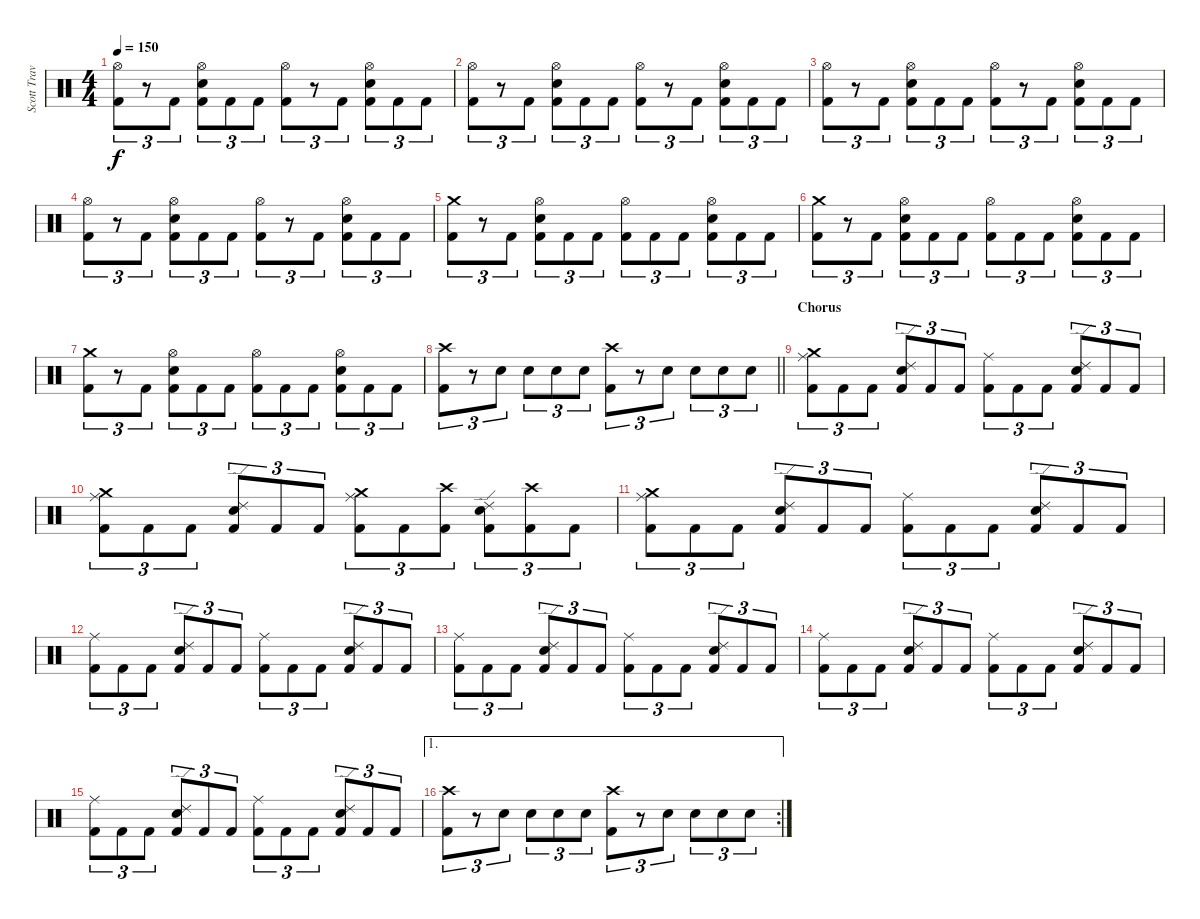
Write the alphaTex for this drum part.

\track ("Scott Travis" "Scott Trav") {instrument percussion}
\staff {score}
\articulation defaults
\ts (4 4)
\tempo 150
\clef neutral
\ks c
("Hi-Hat (open)" "Kick (hit) 2").8{tu (3 2) dy f} r.8{tu (3 2)} "Kick (hit) 2".8{tu (3 2)} ("Hi-Hat (open)" "Snare (hit) 2" "Kick (hit) 2").8{tu (3 2)} "Kick (hit) 2".8{tu (3 2)} "Kick (hit) 2".8{tu (3 2)} ("Hi-Hat (open)" "Kick (hit) 2").8{tu (3 2)} r.8{tu (3 2)} "Kick (hit) 2".8{tu (3 2)} ("Hi-Hat (open)" "Snare (hit) 2" "Kick (hit) 2").8{tu (3 2)} "Kick (hit) 2".8{tu (3 2)} "Kick (hit) 2".8{tu (3 2)} |
("Hi-Hat (open)" "Kick (hit) 2").8{tu (3 2)} r.8{tu (3 2)} "Kick (hit) 2".8{tu (3 2)} ("Hi-Hat (open)" "Snare (hit) 2" "Kick (hit) 2").8{tu (3 2)} "Kick (hit) 2".8{tu (3 2)} "Kick (hit) 2".8{tu (3 2)} ("Hi-Hat (open)" "Kick (hit) 2").8{tu (3 2)} r.8{tu (3 2)} "Kick (hit) 2".8{tu (3 2)} ("Hi-Hat (open)" "Snare (hit) 2" "Kick (hit) 2").8{tu (3 2)} "Kick (hit) 2".8{tu (3 2)} "Kick (hit) 2".8{tu (3 2)} |
("Hi-Hat (open)" "Kick (hit) 2").8{tu (3 2)} r.8{tu (3 2)} "Kick (hit) 2".8{tu (3 2)} ("Hi-Hat (open)" "Snare (hit) 2" "Kick (hit) 2").8{tu (3 2)} "Kick (hit) 2".8{tu (3 2)} "Kick (hit) 2".8{tu (3 2)} ("Hi-Hat (open)" "Kick (hit) 2").8{tu (3 2)} r.8{tu (3 2)} "Kick (hit) 2".8{tu (3 2)} ("Hi-Hat (open)" "Snare (hit) 2" "Kick (hit) 2").8{tu (3 2)} "Kick (hit) 2".8{tu (3 2)} "Kick (hit) 2".8{tu (3 2)} |
("Hi-Hat (open)" "Kick (hit) 2").8{tu (3 2)} r.8{tu (3 2)} "Kick (hit) 2".8{tu (3 2)} ("Hi-Hat (open)" "Snare (hit) 2" "Kick (hit) 2").8{tu (3 2)} "Kick (hit) 2".8{tu (3 2)} "Kick (hit) 2".8{tu (3 2)} ("Hi-Hat (open)" "Kick (hit) 2").8{tu (3 2)} r.8{tu (3 2)} "Kick (hit) 2".8{tu (3 2)} ("Hi-Hat (open)" "Snare (hit) 2" "Kick (hit) 2").8{tu (3 2)} "Kick (hit) 2".8{tu (3 2)} "Kick (hit) 2".8{tu (3 2)} |
("Crash medium (hit)" "Kick (hit) 2").8{tu (3 2)} r.8{tu (3 2)} "Kick (hit) 2".8{tu (3 2)} ("Hi-Hat (open)" "Snare (hit) 2" "Kick (hit) 2").8{tu (3 2)} "Kick (hit) 2".8{tu (3 2)} "Kick (hit) 2".8{tu (3 2)} ("Hi-Hat (open)" "Kick (hit) 2").8{tu (3 2)} "Kick (hit) 2".8{tu (3 2)} "Kick (hit) 2".8{tu (3 2)} ("Hi-Hat (open)" "Snare (hit) 2" "Kick (hit) 2").8{tu (3 2)} "Kick (hit) 2".8{tu (3 2)} "Kick (hit) 2".8{tu (3 2)} |
("Crash medium (hit)" "Kick (hit) 2").8{tu (3 2)} r.8{tu (3 2)} "Kick (hit) 2".8{tu (3 2)} ("Hi-Hat (open)" "Snare (hit) 2" "Kick (hit) 2").8{tu (3 2)} "Kick (hit) 2".8{tu (3 2)} "Kick (hit) 2".8{tu (3 2)} ("Hi-Hat (open)" "Kick (hit) 2").8{tu (3 2)} "Kick (hit) 2".8{tu (3 2)} "Kick (hit) 2".8{tu (3 2)} ("Hi-Hat (open)" "Snare (hit) 2" "Kick (hit) 2").8{tu (3 2)} "Kick (hit) 2".8{tu (3 2)} "Kick (hit) 2".8{tu (3 2)} |
("Crash medium (hit)" "Kick (hit) 2").8{tu (3 2)} r.8{tu (3 2)} "Kick (hit) 2".8{tu (3 2)} ("Hi-Hat (open)" "Snare (hit) 2" "Kick (hit) 2").8{tu (3 2)} "Kick (hit) 2".8{tu (3 2)} "Kick (hit) 2".8{tu (3 2)} ("Hi-Hat (open)" "Kick (hit) 2").8{tu (3 2)} "Kick (hit) 2".8{tu (3 2)} "Kick (hit) 2".8{tu (3 2)} ("Hi-Hat (open)" "Snare (hit) 2" "Kick (hit) 2").8{tu (3 2)} "Kick (hit) 2".8{tu (3 2)} "Kick (hit) 2".8{tu (3 2)} |
\barLineRight lightlight
("Crash high (hit)" "Kick (hit) 2").8{tu (3 2)} r.8{tu (3 2)} "Snare (hit) 2".8{tu (3 2)} "Snare (hit) 2".8{tu (3 2)} "Snare (hit) 2".8{tu (3 2)} "Snare (hit) 2".8{tu (3 2)} ("Crash high (hit)" "Kick (hit) 2").8{tu (3 2)} r.8{tu (3 2)} "Snare (hit) 2".8{tu (3 2)} "Snare (hit) 2".8{tu (3 2)} "Snare (hit) 2".8{tu (3 2)} "Snare (hit) 2".8{tu (3 2)} |
\section ("" "Chorus")
("Ride (middle)" "Crash medium (hit)" "Kick (hit) 2").8{tu (3 2)} "Kick (hit) 2".8{tu (3 2)} "Kick (hit) 2".8{tu (3 2)} ("Ride (edge) 2" "Snare (hit) 2" "Kick (hit) 2").8{tu (3 2)} "Kick (hit) 2".8{tu (3 2)} "Kick (hit) 2".8{tu (3 2)} ("Ride (middle)" "Kick (hit) 2").8{tu (3 2)} "Kick (hit) 2".8{tu (3 2)} "Kick (hit) 2".8{tu (3 2)} ("Ride (edge) 2" "Snare (hit) 2" "Kick (hit) 2").8{tu (3 2)} "Kick (hit) 2".8{tu (3 2)} "Kick (hit) 2".8{tu (3 2)} |
("Ride (middle)" "Crash medium (hit)" "Kick (hit) 2").8{tu (3 2)} "Kick (hit) 2".8{tu (3 2)} "Kick (hit) 2".8{tu (3 2)} ("Ride (edge) 2" "Snare (hit) 2" "Kick (hit) 2").8{tu (3 2)} "Kick (hit) 2".8{tu (3 2)} "Kick (hit) 2".8{tu (3 2)} ("Ride (middle)" "Crash medium (hit)" "Kick (hit) 2").8{tu (3 2)} "Kick (hit) 2".8{tu (3 2)} ("Crash high (hit)" "Kick (hit) 2").8{tu (3 2)} ("Ride (edge) 2" "Snare (hit) 2" "Kick (hit) 2").8{tu (3 2)} ("Crash high (hit)" "Kick (hit) 2").8{tu (3 2)} "Kick (hit) 2".8{tu (3 2)} |
("Ride (middle)" "Crash medium (hit)" "Kick (hit) 2").8{tu (3 2)} "Kick (hit) 2".8{tu (3 2)} "Kick (hit) 2".8{tu (3 2)} ("Ride (edge) 2" "Snare (hit) 2" "Kick (hit) 2").8{tu (3 2)} "Kick (hit) 2".8{tu (3 2)} "Kick (hit) 2".8{tu (3 2)} ("Ride (middle)" "Kick (hit) 2").8{tu (3 2)} "Kick (hit) 2".8{tu (3 2)} "Kick (hit) 2".8{tu (3 2)} ("Ride (edge) 2" "Snare (hit) 2" "Kick (hit) 2").8{tu (3 2)} "Kick (hit) 2".8{tu (3 2)} "Kick (hit) 2".8{tu (3 2)} |
("Ride (middle)" "Kick (hit) 2").8{tu (3 2)} "Kick (hit) 2".8{tu (3 2)} "Kick (hit) 2".8{tu (3 2)} ("Ride (edge) 2" "Snare (hit) 2" "Kick (hit) 2").8{tu (3 2)} "Kick (hit) 2".8{tu (3 2)} "Kick (hit) 2".8{tu (3 2)} ("Ride (middle)" "Kick (hit) 2").8{tu (3 2)} "Kick (hit) 2".8{tu (3 2)} "Kick (hit) 2".8{tu (3 2)} ("Ride (edge) 2" "Snare (hit) 2" "Kick (hit) 2").8{tu (3 2)} "Kick (hit) 2".8{tu (3 2)} "Kick (hit) 2".8{tu (3 2)} |
("Ride (middle)" "Kick (hit) 2").8{tu (3 2)} "Kick (hit) 2".8{tu (3 2)} "Kick (hit) 2".8{tu (3 2)} ("Ride (edge) 2" "Snare (hit) 2" "Kick (hit) 2").8{tu (3 2)} "Kick (hit) 2".8{tu (3 2)} "Kick (hit) 2".8{tu (3 2)} ("Ride (middle)" "Kick (hit) 2").8{tu (3 2)} "Kick (hit) 2".8{tu (3 2)} "Kick (hit) 2".8{tu (3 2)} ("Ride (edge) 2" "Snare (hit) 2" "Kick (hit) 2").8{tu (3 2)} "Kick (hit) 2".8{tu (3 2)} "Kick (hit) 2".8{tu (3 2)} |
("Ride (middle)" "Kick (hit) 2").8{tu (3 2)} "Kick (hit) 2".8{tu (3 2)} "Kick (hit) 2".8{tu (3 2)} ("Ride (edge) 2" "Snare (hit) 2" "Kick (hit) 2").8{tu (3 2)} "Kick (hit) 2".8{tu (3 2)} "Kick (hit) 2".8{tu (3 2)} ("Ride (middle)" "Kick (hit) 2").8{tu (3 2)} "Kick (hit) 2".8{tu (3 2)} "Kick (hit) 2".8{tu (3 2)} ("Ride (edge) 2" "Snare (hit) 2" "Kick (hit) 2").8{tu (3 2)} "Kick (hit) 2".8{tu (3 2)} "Kick (hit) 2".8{tu (3 2)} |
("Ride (middle)" "Kick (hit) 2").8{tu (3 2)} "Kick (hit) 2".8{tu (3 2)} "Kick (hit) 2".8{tu (3 2)} ("Ride (edge) 2" "Snare (hit) 2" "Kick (hit) 2").8{tu (3 2)} "Kick (hit) 2".8{tu (3 2)} "Kick (hit) 2".8{tu (3 2)} ("Ride (middle)" "Kick (hit) 2").8{tu (3 2)} "Kick (hit) 2".8{tu (3 2)} "Kick (hit) 2".8{tu (3 2)} ("Ride (edge) 2" "Snare (hit) 2" "Kick (hit) 2").8{tu (3 2)} "Kick (hit) 2".8{tu (3 2)} "Kick (hit) 2".8{tu (3 2)} |
\ae 1
\rc 2
("Crash high (hit)" "Kick (hit) 2").8{tu (3 2)} r.8{tu (3 2)} "Snare (hit) 2".8{tu (3 2)} "Snare (hit) 2".8{tu (3 2)} "Snare (hit) 2".8{tu (3 2)} "Snare (hit) 2".8{tu (3 2)} ("Crash high (hit)" "Kick (hit) 2").8{tu (3 2)} r.8{tu (3 2)} "Snare (hit) 2".8{tu (3 2)} "Snare (hit) 2".8{tu (3 2)} "Snare (hit) 2".8{tu (3 2)} "Snare (hit) 2".8{tu (3 2)}
